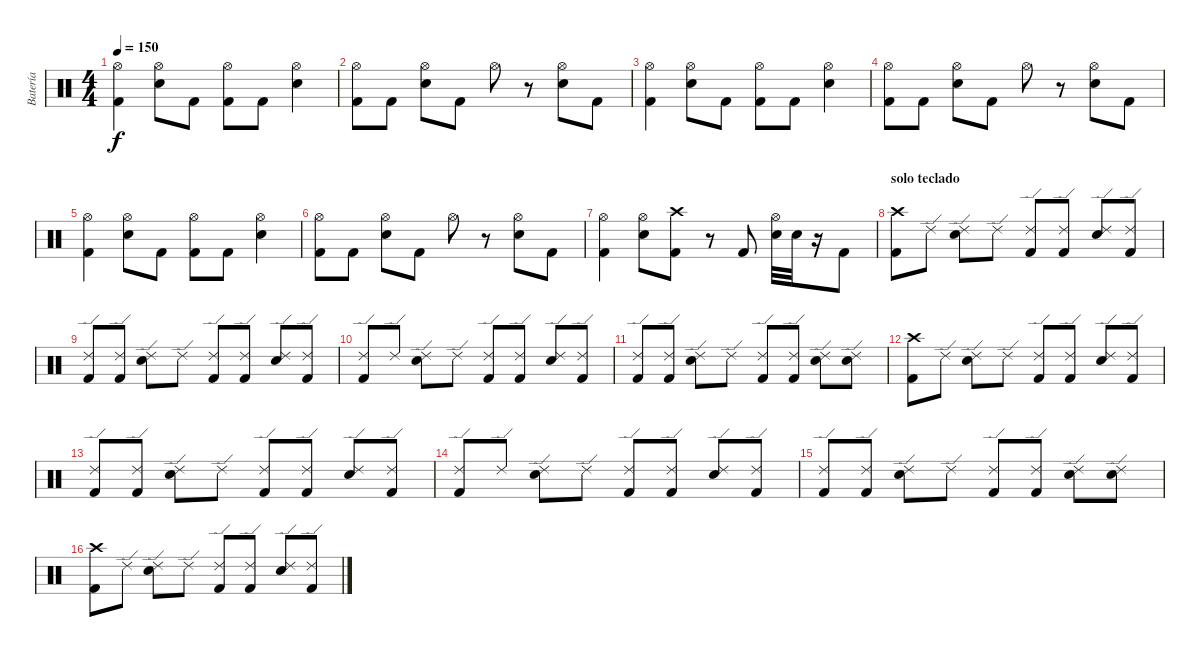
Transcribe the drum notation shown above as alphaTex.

\track ("Batería" "Batería") {instrument percussion}
\staff {score}
\articulation defaults
\ts (4 4)
\tempo 150
\clef neutral
\ks c
("Hi-Hat (open)" "Kick (hit) 2").4{dy f} ("Hi-Hat (open)" "Electric Snare (hit)").8 "Kick (hit) 2".8 ("Hi-Hat (open)" "Kick (hit) 2").8 "Kick (hit) 2".8 ("Hi-Hat (open)" "Electric Snare (hit)").4 |
("Hi-Hat (open)" "Kick (hit) 2").8 "Kick (hit) 2".8 ("Hi-Hat (open)" "Electric Snare (hit)").8 "Kick (hit) 2".8 "Hi-Hat (open)".8 r.8 ("Hi-Hat (open)" "Electric Snare (hit)").8 "Kick (hit) 2".8 |
("Hi-Hat (open)" "Kick (hit) 2").4 ("Hi-Hat (open)" "Electric Snare (hit)").8 "Kick (hit) 2".8 ("Hi-Hat (open)" "Kick (hit) 2").8 "Kick (hit) 2".8 ("Hi-Hat (open)" "Electric Snare (hit)").4 |
("Hi-Hat (open)" "Kick (hit) 2").8 "Kick (hit) 2".8 ("Hi-Hat (open)" "Electric Snare (hit)").8 "Kick (hit) 2".8 "Hi-Hat (open)".8 r.8 ("Hi-Hat (open)" "Electric Snare (hit)").8 "Kick (hit) 2".8 |
("Hi-Hat (open)" "Kick (hit) 2").4 ("Hi-Hat (open)" "Electric Snare (hit)").8 "Kick (hit) 2".8 ("Hi-Hat (open)" "Kick (hit) 2").8 "Kick (hit) 2".8 ("Hi-Hat (open)" "Electric Snare (hit)").4 |
("Hi-Hat (open)" "Kick (hit) 2").8 "Kick (hit) 2".8 ("Hi-Hat (open)" "Electric Snare (hit)").8 "Kick (hit) 2".8 "Hi-Hat (open)".8 r.8 ("Hi-Hat (open)" "Electric Snare (hit)").8 "Kick (hit) 2".8 |
("Hi-Hat (open)" "Kick (hit) 2").4 ("Hi-Hat (open)" "Electric Snare (hit)").8 ("Crash high (hit)" "Kick (hit) 2").8 r.8 "Kick (hit) 2".8 ("Hi-Hat (open)" "Electric Snare (hit)").32 "Electric Snare (hit)".32 r.16 "Kick (hit) 2".8 |
\section ("" "solo teclado")
("Crash high (hit)" "Kick (hit) 2").8 "Ride (edge) 2".8 ("Ride (edge) 2" "Electric Snare (hit)").8 "Ride (edge) 2".8 ("Ride (edge) 2" "Kick (hit) 2").8 ("Ride (edge) 2" "Kick (hit) 2").8 ("Ride (edge) 2" "Electric Snare (hit)").8 ("Ride (edge) 2" "Kick (hit) 2").8 |
("Ride (edge) 2" "Kick (hit) 2").8 ("Ride (edge) 2" "Kick (hit) 2").8 ("Ride (edge) 2" "Electric Snare (hit)").8 "Ride (edge) 2".8 ("Ride (edge) 2" "Kick (hit) 2").8 ("Ride (edge) 2" "Kick (hit) 2").8 ("Ride (edge) 2" "Electric Snare (hit)").8 ("Ride (edge) 2" "Kick (hit) 2").8 |
("Ride (edge) 2" "Kick (hit) 2").8 "Ride (edge) 2".8 ("Ride (edge) 2" "Electric Snare (hit)").8 "Ride (edge) 2".8 ("Ride (edge) 2" "Kick (hit) 2").8 ("Ride (edge) 2" "Kick (hit) 2").8 ("Ride (edge) 2" "Electric Snare (hit)").8 ("Ride (edge) 2" "Kick (hit) 2").8 |
("Ride (edge) 2" "Kick (hit) 2").8 ("Ride (edge) 2" "Kick (hit) 2").8 ("Ride (edge) 2" "Electric Snare (hit)").8 "Ride (edge) 2".8 ("Ride (edge) 2" "Kick (hit) 2").8 ("Ride (edge) 2" "Kick (hit) 2").8 ("Ride (edge) 2" "Electric Snare (hit)").8 ("Ride (edge) 2" "Electric Snare (hit)").8 |
("Crash high (hit)" "Kick (hit) 2").8 "Ride (edge) 2".8 ("Ride (edge) 2" "Electric Snare (hit)").8 "Ride (edge) 2".8 ("Ride (edge) 2" "Kick (hit) 2").8 ("Ride (edge) 2" "Kick (hit) 2").8 ("Ride (edge) 2" "Electric Snare (hit)").8 ("Ride (edge) 2" "Kick (hit) 2").8 |
("Ride (edge) 2" "Kick (hit) 2").8 ("Ride (edge) 2" "Kick (hit) 2").8 ("Ride (edge) 2" "Electric Snare (hit)").8 "Ride (edge) 2".8 ("Ride (edge) 2" "Kick (hit) 2").8 ("Ride (edge) 2" "Kick (hit) 2").8 ("Ride (edge) 2" "Electric Snare (hit)").8 ("Ride (edge) 2" "Kick (hit) 2").8 |
("Ride (edge) 2" "Kick (hit) 2").8 "Ride (edge) 2".8 ("Ride (edge) 2" "Electric Snare (hit)").8 "Ride (edge) 2".8 ("Ride (edge) 2" "Kick (hit) 2").8 ("Ride (edge) 2" "Kick (hit) 2").8 ("Ride (edge) 2" "Electric Snare (hit)").8 ("Ride (edge) 2" "Kick (hit) 2").8 |
("Ride (edge) 2" "Kick (hit) 2").8 ("Ride (edge) 2" "Kick (hit) 2").8 ("Ride (edge) 2" "Electric Snare (hit)").8 "Ride (edge) 2".8 ("Ride (edge) 2" "Kick (hit) 2").8 ("Ride (edge) 2" "Kick (hit) 2").8 ("Ride (edge) 2" "Electric Snare (hit)").8 ("Ride (edge) 2" "Electric Snare (hit)").8 |
("Crash high (hit)" "Kick (hit) 2").8 "Ride (edge) 2".8 ("Ride (edge) 2" "Electric Snare (hit)").8 "Ride (edge) 2".8 ("Ride (edge) 2" "Kick (hit) 2").8 ("Ride (edge) 2" "Kick (hit) 2").8 ("Ride (edge) 2" "Electric Snare (hit)").8 ("Ride (edge) 2" "Kick (hit) 2").8
